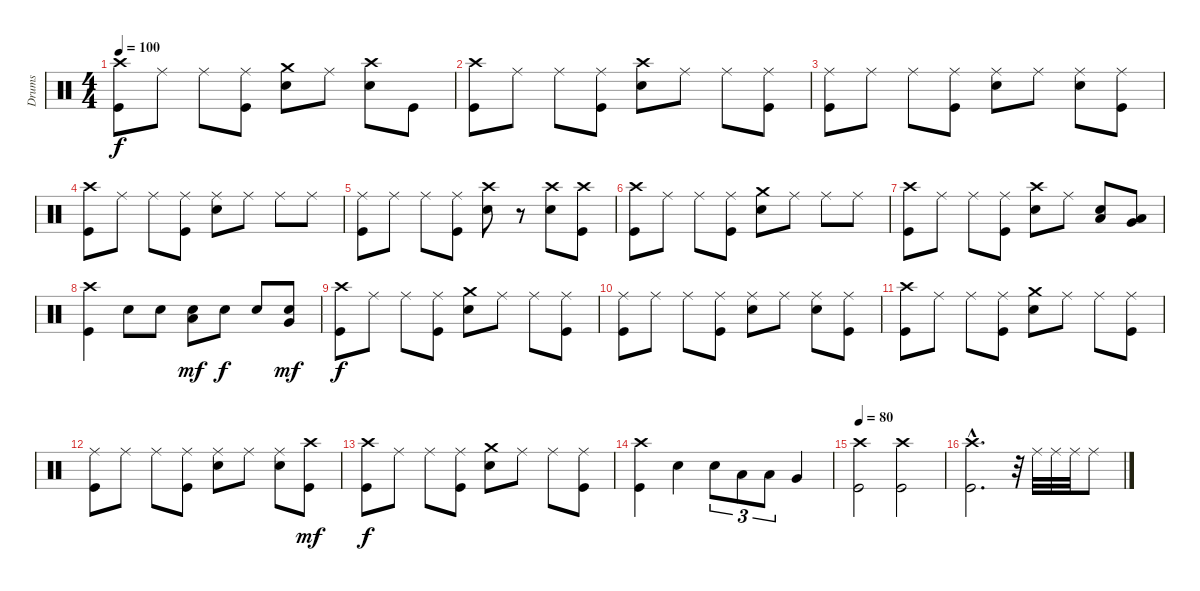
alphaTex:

\track ("Drums" "Drums") {instrument percussion}
\staff {score}
\articulation defaults
\ts (4 4)
\tempo 100
\clef neutral
\ks c
("Crash high (hit)" "Kick (hit)").8{dy f} "Ride (middle)".8 "Ride (middle)".8 ("Ride (middle)" "Kick (hit)").8 ("Crash medium (hit)" "Snare (hit) 2").8 "Ride (middle)".8 ("Crash high (hit)" "Snare (hit) 2").8 "Kick (hit)".8 |
("Crash high (hit)" "Kick (hit)").8 "Ride (middle)".8 "Ride (middle)".8 ("Ride (middle)" "Kick (hit)").8 ("Crash high (hit)" "Snare (hit) 2").8 "Ride (middle)".8 "Ride (middle)".8 ("Ride (middle)" "Kick (hit)").8 |
("Ride (middle)" "Kick (hit)").8 "Ride (middle)".8 "Ride (middle)".8 ("Ride (middle)" "Kick (hit)").8 ("Ride (middle)" "Snare (hit) 2").8 "Ride (middle)".8 ("Ride (middle)" "Snare (hit) 2").8 ("Ride (middle)" "Kick (hit)").8 |
("Crash high (hit)" "Kick (hit)").8 "Ride (middle)".8 "Ride (middle)".8 ("Ride (middle)" "Kick (hit)").8 ("Ride (middle)" "Snare (hit) 2").8 "Ride (middle)".8 "Ride (middle)".8 "Ride (middle)".8 |
("Ride (middle)" "Kick (hit)").8 "Ride (middle)".8 "Ride (middle)".8 ("Ride (middle)" "Kick (hit)").8 ("Crash high (hit)" "Snare (hit) 2").8 r.8 ("Crash high (hit)" "Snare (hit) 2").8 ("Crash high (hit)" "Kick (hit)").8 |
("Crash high (hit)" "Kick (hit)").8 "Ride (middle)".8 "Ride (middle)".8 ("Ride (middle)" "Kick (hit)").8 ("Crash medium (hit)" "Snare (hit) 2").8 "Ride (middle)".8 "Ride (middle)".8 "Ride (middle)".8 |
("Crash high (hit)" "Kick (hit)").8 "Ride (middle)".8 "Ride (middle)".8 ("Ride (middle)" "Kick (hit)").8 ("Crash high (hit)" "Snare (hit) 2").8 "Ride (middle)".8 ("Snare (hit) 2" "Low Tom (hit)").8 ("Very Low Tom (hit)" "Low Tom (hit)").8 |
("Crash high (hit)" "Kick (hit)").4 "Snare (hit) 2".8 "Snare (hit) 2".8 ("Snare (hit) 2" "Low Tom (hit)").8{dy mf} "Snare (hit) 2".8{dy f} "Snare (hit) 2".8 ("Snare (hit) 2" "Very Low Tom (hit)").8{dy mf} |
("Crash high (hit)" "Kick (hit)").8{dy f} "Ride (middle)".8 "Ride (middle)".8 ("Ride (middle)" "Kick (hit)").8 ("Crash medium (hit)" "Snare (hit) 2").8 "Ride (middle)".8 "Ride (middle)".8 ("Ride (middle)" "Kick (hit)").8 |
("Ride (middle)" "Kick (hit)").8 "Ride (middle)".8 "Ride (middle)".8 ("Ride (middle)" "Kick (hit)").8 ("Ride (middle)" "Snare (hit) 2").8 "Ride (middle)".8 ("Ride (middle)" "Snare (hit) 2").8 ("Ride (middle)" "Kick (hit)").8 |
("Crash high (hit)" "Kick (hit)").8 "Ride (middle)".8 "Ride (middle)".8 ("Ride (middle)" "Kick (hit)").8 ("Crash medium (hit)" "Snare (hit) 2").8 "Ride (middle)".8 "Ride (middle)".8 ("Ride (middle)" "Kick (hit)").8 |
("Ride (middle)" "Kick (hit)").8 "Ride (middle)".8 "Ride (middle)".8 ("Ride (middle)" "Kick (hit)").8 ("Ride (middle)" "Snare (hit) 2").8 "Ride (middle)".8 ("Ride (middle)" "Snare (hit) 2").8 ("Crash high (hit)" "Kick (hit)").8{dy mf} |
("Crash high (hit)" "Kick (hit)").8{dy f} "Ride (middle)".8 "Ride (middle)".8 ("Ride (middle)" "Kick (hit)").8 ("Crash medium (hit)" "Snare (hit) 2").8 "Ride (middle)".8 "Ride (middle)".8 ("Ride (middle)" "Kick (hit)").8 |
("Crash high (hit)" "Kick (hit)").4 "Snare (hit) 2".4 "Snare (hit) 2".8{tu (3 2)} "Low Tom (hit)".8{tu (3 2)} "Low Tom (hit)".8{tu (3 2)} "Very Low Tom (hit)".4 |
\tempo 80
("Crash high (hit)" "Kick (hit)").2 ("Crash high (hit)" "Kick (hit)").2 |
("Crash high (hit)"{hac} "Kick (hit)"{hac}).2{d} r.32 "Ride (middle)".32 "Ride (middle)".32 "Ride (middle)".32 "Ride (middle)".8
